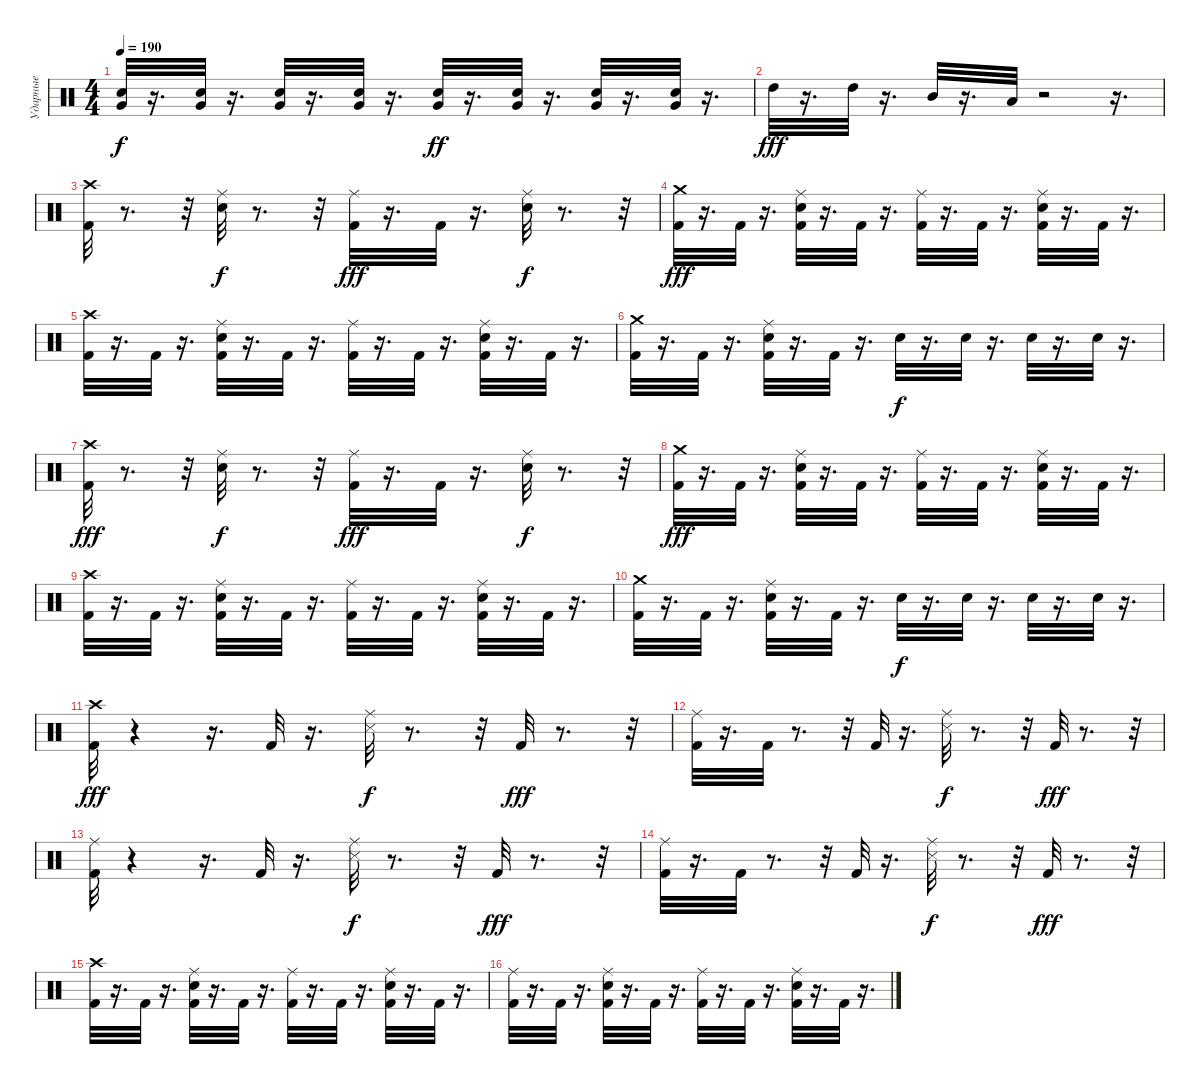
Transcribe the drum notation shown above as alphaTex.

\track ("Ударные" "Ударные") {instrument percussion}
\staff {score}
\articulation defaults
\ts (4 4)
\tempo 190
\clef neutral
\ks c
("Very Low Tom (hit)" "Snare (hit) 2").32{dy f} r.16{d} ("Very Low Tom (hit)" "Snare (hit) 2").32 r.16{d} ("Very Low Tom (hit)" "Snare (hit) 2").32 r.16{d} ("Very Low Tom (hit)" "Snare (hit) 2").32 r.16{d} ("Very Low Tom (hit)" "Snare (hit) 2").32{dy ff} r.16{d} ("Very Low Tom (hit)" "Snare (hit) 2").32 r.16{d} ("Very Low Tom (hit)" "Snare (hit) 2").32 r.16{d} ("Very Low Tom (hit)" "Snare (hit) 2").32 r.16{d} |
"High Tom (hit)".32{dy fff} r.16{d} "High Tom (hit)".32 r.16{d} "Mid Tom (hit)".32 r.16{d} "Low Tom (hit)".32 r.2 r.16{d} |
("Kick (hit) 2" "Crash high (hit)").32 r.8{d} r.32 ("Ride (middle)" "Snare (hit) 2").32{dy f} r.8{d} r.32 ("Kick (hit) 2" "Ride (middle)").32{dy fff} r.16{d} "Kick (hit) 2".32 r.16{d} ("Ride (middle)" "Snare (hit) 2").32{dy f} r.8{d} r.32 |
("Crash medium (hit)" "Kick (hit) 2").32{dy fff} r.16{d} "Kick (hit) 2".32 r.16{d} ("Ride (middle)" "Snare (hit) 2" "Kick (hit) 2").32 r.16{d} "Kick (hit) 2".32 r.16{d} ("Ride (middle)" "Kick (hit) 2").32 r.16{d} "Kick (hit) 2".32 r.16{d} ("Ride (middle)" "Snare (hit) 2" "Kick (hit) 2").32 r.16{d} "Kick (hit) 2".32 r.16{d} |
("Crash high (hit)" "Kick (hit) 2").32 r.16{d} "Kick (hit) 2".32 r.16{d} ("Ride (middle)" "Snare (hit) 2" "Kick (hit) 2").32 r.16{d} "Kick (hit) 2".32 r.16{d} ("Ride (middle)" "Kick (hit) 2").32 r.16{d} "Kick (hit) 2".32 r.16{d} ("Kick (hit) 2" "Ride (middle)" "Snare (hit) 2").32 r.16{d} "Kick (hit) 2".32 r.16{d} |
("Crash medium (hit)" "Kick (hit) 2").32 r.16{d} "Kick (hit) 2".32 r.16{d} ("Ride (middle)" "Kick (hit) 2" "Snare (hit) 2").32 r.16{d} "Kick (hit) 2".32 r.16{d} "Snare (hit) 2".32{dy f} r.16{d} "Snare (hit) 2".32 r.16{d} "Snare (hit) 2".32 r.16{d} "Snare (hit) 2".32 r.16{d} |
("Kick (hit) 2" "Crash high (hit)").32{dy fff} r.8{d} r.32 ("Ride (middle)" "Snare (hit) 2").32{dy f} r.8{d} r.32 ("Kick (hit) 2" "Ride (middle)").32{dy fff} r.16{d} "Kick (hit) 2".32 r.16{d} ("Ride (middle)" "Snare (hit) 2").32{dy f} r.8{d} r.32 |
("Crash medium (hit)" "Kick (hit) 2").32{dy fff} r.16{d} "Kick (hit) 2".32 r.16{d} ("Ride (middle)" "Snare (hit) 2" "Kick (hit) 2").32 r.16{d} "Kick (hit) 2".32 r.16{d} ("Ride (middle)" "Kick (hit) 2").32 r.16{d} "Kick (hit) 2".32 r.16{d} ("Ride (middle)" "Snare (hit) 2" "Kick (hit) 2").32 r.16{d} "Kick (hit) 2".32 r.16{d} |
("Crash high (hit)" "Kick (hit) 2").32 r.16{d} "Kick (hit) 2".32 r.16{d} ("Ride (middle)" "Snare (hit) 2" "Kick (hit) 2").32 r.16{d} "Kick (hit) 2".32 r.16{d} ("Ride (middle)" "Kick (hit) 2").32 r.16{d} "Kick (hit) 2".32 r.16{d} ("Kick (hit) 2" "Ride (middle)" "Snare (hit) 2").32 r.16{d} "Kick (hit) 2".32 r.16{d} |
("Crash medium (hit)" "Kick (hit) 2").32 r.16{d} "Kick (hit) 2".32 r.16{d} ("Ride (middle)" "Kick (hit) 2" "Snare (hit) 2").32 r.16{d} "Kick (hit) 2".32 r.16{d} "Snare (hit) 2".32{dy f} r.16{d} "Snare (hit) 2".32 r.16{d} "Snare (hit) 2".32 r.16{d} "Snare (hit) 2".32 r.16{d} |
("Crash high (hit)" "Kick (hit) 2").32{dy fff} r.4 r.16{d} "Kick (hit) 2".32 r.16{d} ("Ride (middle)" "Snare (side stick) 3").32{dy f} r.8{d} r.32 "Kick (hit) 2".32{dy fff} r.8{d} r.32 |
("Ride (middle)" "Kick (hit) 2").32 r.16{d} "Kick (hit) 2".32 r.8{d} r.32 "Kick (hit) 2".32 r.16{d} ("Ride (middle)" "Snare (side stick) 3").32{dy f} r.8{d} r.32 "Kick (hit) 2".32{dy fff} r.8{d} r.32 |
("Ride (middle)" "Kick (hit) 2").32 r.4 r.16{d} "Kick (hit) 2".32 r.16{d} ("Ride (middle)" "Snare (side stick) 3").32{dy f} r.8{d} r.32 "Kick (hit) 2".32{dy fff} r.8{d} r.32 |
("Ride (middle)" "Kick (hit) 2").32 r.16{d} "Kick (hit) 2".32 r.8{d} r.32 "Kick (hit) 2".32 r.16{d} ("Ride (middle)" "Snare (side stick) 3").32{dy f} r.8{d} r.32 "Kick (hit) 2".32{dy fff} r.8{d} r.32 |
("Crash high (hit)" "Kick (hit) 2").32 r.16{d} "Kick (hit) 2".32 r.16{d} ("Kick (hit) 2" "Ride (middle)" "Snare (hit) 2").32 r.16{d} "Kick (hit) 2".32 r.16{d} ("Ride (middle)" "Kick (hit) 2").32 r.16{d} "Kick (hit) 2".32 r.16{d} ("Kick (hit) 2" "Ride (middle)" "Snare (hit) 2").32 r.16{d} "Kick (hit) 2".32 r.16{d} |
("Ride (middle)" "Kick (hit) 2").32 r.16{d} "Kick (hit) 2".32 r.16{d} ("Ride (middle)" "Kick (hit) 2" "Snare (hit) 2").32 r.16{d} "Kick (hit) 2".32 r.16{d} ("Ride (middle)" "Kick (hit) 2").32 r.16{d} "Kick (hit) 2".32 r.16{d} ("Ride (middle)" "Kick (hit) 2" "Snare (hit) 2").32 r.16{d} "Kick (hit) 2".32 r.16{d}
